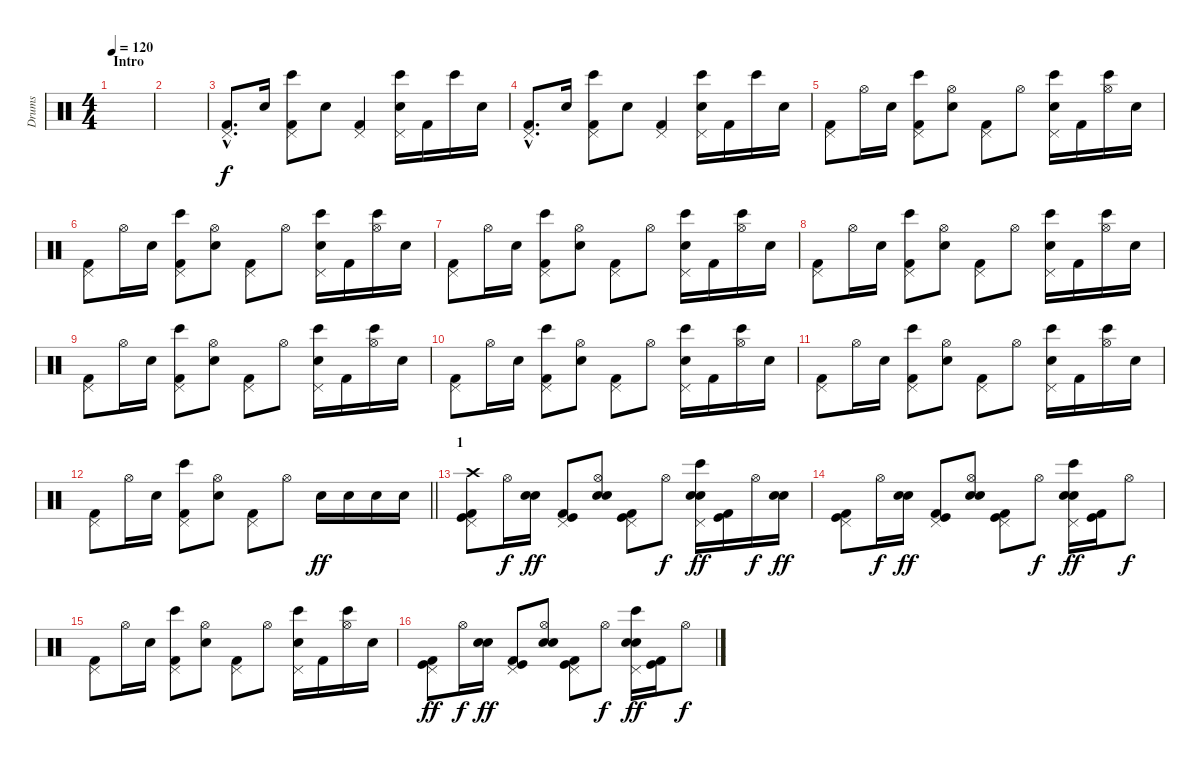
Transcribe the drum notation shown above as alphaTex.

\track ("Drums" "Drums") {instrument percussion}
\staff {score}
\articulation defaults
\ts (4 4)
\section ("" "Intro")
\tempo 120
\clef neutral
\ks c
|
|
("Pedal Hi-Hat (hit)"{hac} "Kick (hit) 2"{hac}).8{d} "Snare (hit) 2".16 ("Pedal Hi-Hat (hit)" "Bongo High (hit)" "Kick (hit) 2").8 "Snare (hit) 2".8 ("Pedal Hi-Hat (hit)" "Kick (hit) 2").4 ("Pedal Hi-Hat (hit)" "Bongo High (hit)" "Snare (hit) 2").16 "Kick (hit) 2".16 "Bongo High (hit)".16 "Snare (hit) 2".16 |
("Pedal Hi-Hat (hit)"{hac} "Kick (hit) 2"{hac}).8{d} "Snare (hit) 2".16 ("Pedal Hi-Hat (hit)" "Bongo High (hit)" "Kick (hit) 2").8 "Snare (hit) 2".8 ("Pedal Hi-Hat (hit)" "Kick (hit) 2").4 ("Pedal Hi-Hat (hit)" "Bongo High (hit)" "Snare (hit) 2").16 "Kick (hit) 2".16 "Bongo High (hit)".16 "Snare (hit) 2".16 |
("Pedal Hi-Hat (hit)" "Kick (hit) 2").8 "Hi-Hat (open)".16 "Snare (hit) 2".16 ("Pedal Hi-Hat (hit)" "Bongo High (hit)" "Kick (hit) 2").8 ("Hi-Hat (open)" "Snare (hit) 2").8 ("Pedal Hi-Hat (hit)" "Kick (hit) 2").8 "Hi-Hat (open)".8 ("Pedal Hi-Hat (hit)" "Bongo High (hit)" "Snare (hit) 2").16 "Kick (hit) 2".16 ("Hi-Hat (open)" "Bongo High (hit)").16 "Snare (hit) 2".16 |
("Pedal Hi-Hat (hit)" "Kick (hit) 2").8 "Hi-Hat (open)".16 "Snare (hit) 2".16 ("Pedal Hi-Hat (hit)" "Bongo High (hit)" "Kick (hit) 2").8 ("Hi-Hat (open)" "Snare (hit) 2").8 ("Pedal Hi-Hat (hit)" "Kick (hit) 2").8 "Hi-Hat (open)".8 ("Pedal Hi-Hat (hit)" "Bongo High (hit)" "Snare (hit) 2").16 "Kick (hit) 2".16 ("Hi-Hat (open)" "Bongo High (hit)").16 "Snare (hit) 2".16 |
("Pedal Hi-Hat (hit)" "Kick (hit) 2").8 "Hi-Hat (open)".16 "Snare (hit) 2".16 ("Pedal Hi-Hat (hit)" "Bongo High (hit)" "Kick (hit) 2").8 ("Hi-Hat (open)" "Snare (hit) 2").8 ("Pedal Hi-Hat (hit)" "Kick (hit) 2").8 "Hi-Hat (open)".8 ("Pedal Hi-Hat (hit)" "Bongo High (hit)" "Snare (hit) 2").16 "Kick (hit) 2".16 ("Hi-Hat (open)" "Bongo High (hit)").16 "Snare (hit) 2".16 |
("Pedal Hi-Hat (hit)" "Kick (hit) 2").8 "Hi-Hat (open)".16 "Snare (hit) 2".16 ("Pedal Hi-Hat (hit)" "Bongo High (hit)" "Kick (hit) 2").8 ("Hi-Hat (open)" "Snare (hit) 2").8 ("Pedal Hi-Hat (hit)" "Kick (hit) 2").8 "Hi-Hat (open)".8 ("Pedal Hi-Hat (hit)" "Bongo High (hit)" "Snare (hit) 2").16 "Kick (hit) 2".16 ("Hi-Hat (open)" "Bongo High (hit)").16 "Snare (hit) 2".16 |
("Pedal Hi-Hat (hit)" "Kick (hit) 2").8 "Hi-Hat (open)".16 "Snare (hit) 2".16 ("Pedal Hi-Hat (hit)" "Bongo High (hit)" "Kick (hit) 2").8 ("Hi-Hat (open)" "Snare (hit) 2").8 ("Pedal Hi-Hat (hit)" "Kick (hit) 2").8 "Hi-Hat (open)".8 ("Pedal Hi-Hat (hit)" "Bongo High (hit)" "Snare (hit) 2").16 "Kick (hit) 2".16 ("Hi-Hat (open)" "Bongo High (hit)").16 "Snare (hit) 2".16 |
("Pedal Hi-Hat (hit)" "Kick (hit) 2").8 "Hi-Hat (open)".16 "Snare (hit) 2".16 ("Pedal Hi-Hat (hit)" "Bongo High (hit)" "Kick (hit) 2").8 ("Hi-Hat (open)" "Snare (hit) 2").8 ("Pedal Hi-Hat (hit)" "Kick (hit) 2").8 "Hi-Hat (open)".8 ("Pedal Hi-Hat (hit)" "Bongo High (hit)" "Snare (hit) 2").16 "Kick (hit) 2".16 ("Hi-Hat (open)" "Bongo High (hit)").16 "Snare (hit) 2".16 |
("Pedal Hi-Hat (hit)" "Kick (hit) 2").8 "Hi-Hat (open)".16 "Snare (hit) 2".16 ("Pedal Hi-Hat (hit)" "Bongo High (hit)" "Kick (hit) 2").8 ("Hi-Hat (open)" "Snare (hit) 2").8 ("Pedal Hi-Hat (hit)" "Kick (hit) 2").8 "Hi-Hat (open)".8 ("Pedal Hi-Hat (hit)" "Bongo High (hit)" "Snare (hit) 2").16 "Kick (hit) 2".16 ("Hi-Hat (open)" "Bongo High (hit)").16 "Snare (hit) 2".16 |
\barLineRight lightlight
("Pedal Hi-Hat (hit)" "Kick (hit) 2").8 "Hi-Hat (open)".16 "Snare (hit) 2".16 ("Pedal Hi-Hat (hit)" "Bongo High (hit)" "Kick (hit) 2").8 ("Hi-Hat (open)" "Snare (hit) 2").8 ("Pedal Hi-Hat (hit)" "Kick (hit) 2").8 "Hi-Hat (open)".8 "Electric Snare (hit)".16{dy ff volume 15} "Electric Snare (hit)".16 "Electric Snare (hit)".16 "Electric Snare (hit)".16 |
\section ("" "1")
("Crash high (hit)" "Pedal Hi-Hat (hit)" "Kick (hit)" "Kick (hit) 2").8 "Hi-Hat (open)".16{dy f} ("Snare (hit) 2" "Electric Snare (hit)").16{dy ff} ("Pedal Hi-Hat (hit)" "Kick (hit)" "Kick (hit) 2").8 ("Hi-Hat (open)" "Snare (hit) 2" "Electric Snare (hit)").8 ("Pedal Hi-Hat (hit)" "Kick (hit)" "Kick (hit) 2").8 "Hi-Hat (open)".8{dy f} ("Pedal Hi-Hat (hit)" "Bongo High (hit)" "Snare (hit) 2" "Electric Snare (hit)").16{dy ff} ("Kick (hit)" "Kick (hit) 2").16 "Hi-Hat (open)".16{dy f} ("Snare (hit) 2" "Electric Snare (hit)").16{dy ff} |
("Pedal Hi-Hat (hit)" "Kick (hit)" "Kick (hit) 2").8 "Hi-Hat (open)".16{dy f} ("Snare (hit) 2" "Electric Snare (hit)").16{dy ff} ("Pedal Hi-Hat (hit)" "Kick (hit)" "Kick (hit) 2").8 ("Hi-Hat (open)" "Snare (hit) 2" "Electric Snare (hit)").8 ("Pedal Hi-Hat (hit)" "Kick (hit)" "Kick (hit) 2").8 "Hi-Hat (open)".8{dy f} ("Pedal Hi-Hat (hit)" "Bongo High (hit)" "Snare (hit) 2" "Electric Snare (hit)").16{dy ff} ("Kick (hit)" "Kick (hit) 2").16 "Hi-Hat (open)".8{dy f} |
("Pedal Hi-Hat (hit)" "Kick (hit) 2").8 "Hi-Hat (open)".16 "Snare (hit) 2".16 ("Pedal Hi-Hat (hit)" "Bongo High (hit)" "Kick (hit) 2").8 ("Hi-Hat (open)" "Snare (hit) 2").8 ("Pedal Hi-Hat (hit)" "Kick (hit) 2").8 "Hi-Hat (open)".8 ("Pedal Hi-Hat (hit)" "Bongo High (hit)" "Snare (hit) 2").16 "Kick (hit) 2".16 ("Hi-Hat (open)" "Bongo High (hit)").16 "Snare (hit) 2".16 |
("Pedal Hi-Hat (hit)" "Kick (hit)" "Kick (hit) 2").8{dy ff} "Hi-Hat (open)".16{dy f} ("Snare (hit) 2" "Electric Snare (hit)").16{dy ff} ("Pedal Hi-Hat (hit)" "Kick (hit)" "Kick (hit) 2").8 ("Hi-Hat (open)" "Snare (hit) 2" "Electric Snare (hit)").8 ("Pedal Hi-Hat (hit)" "Kick (hit)" "Kick (hit) 2").8 "Hi-Hat (open)".8{dy f} ("Pedal Hi-Hat (hit)" "Bongo High (hit)" "Snare (hit) 2" "Electric Snare (hit)").16{dy ff} ("Kick (hit)" "Kick (hit) 2").16 "Hi-Hat (open)".8{dy f}
